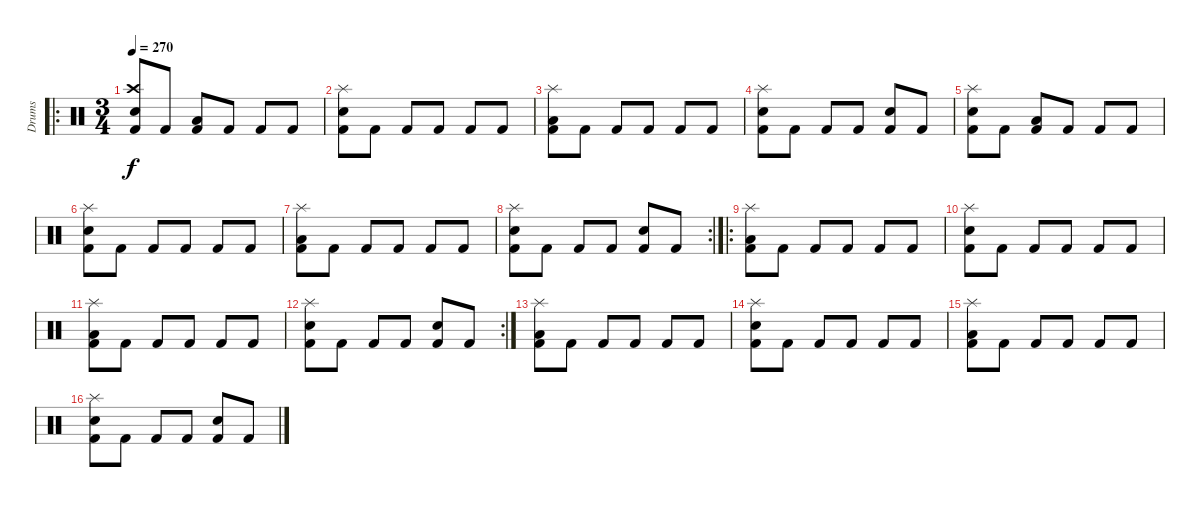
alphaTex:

\track ("Drums" "Drums") {instrument percussion}
\staff {score}
\articulation defaults
\ro
\ts (3 4)
\tempo 265
\tempo 270
\clef neutral
\ks c
("Electric Snare (hit)" "Crash high (hit)" "Kick (hit) 2").8{dy f} "Kick (hit) 2".8 ("Low Tom (hit)" "Kick (hit) 2").8 "Kick (hit) 2".8 "Kick (hit) 2".8 "Kick (hit) 2".8 |
("Splash (hit)" "Electric Snare (hit)" "Kick (hit) 2").8 "Kick (hit) 2".8 "Kick (hit) 2".8 "Kick (hit) 2".8 "Kick (hit) 2".8 "Kick (hit) 2".8 |
("Splash (hit)" "Low Tom (hit)" "Kick (hit) 2").8 "Kick (hit) 2".8 "Kick (hit) 2".8 "Kick (hit) 2".8 "Kick (hit) 2".8 "Kick (hit) 2".8 |
("Splash (hit)" "Electric Snare (hit)" "Kick (hit) 2").8 "Kick (hit) 2".8 "Kick (hit) 2".8 "Kick (hit) 2".8 ("Electric Snare (hit)" "Kick (hit) 2").8 "Kick (hit) 2".8 |
("Splash (hit)" "Electric Snare (hit)" "Kick (hit) 2").8 "Kick (hit) 2".8 ("Low Tom (hit)" "Kick (hit) 2").8 "Kick (hit) 2".8 "Kick (hit) 2".8 "Kick (hit) 2".8 |
("Splash (hit)" "Electric Snare (hit)" "Kick (hit) 2").8 "Kick (hit) 2".8 "Kick (hit) 2".8 "Kick (hit) 2".8 "Kick (hit) 2".8 "Kick (hit) 2".8 |
("Splash (hit)" "Low Tom (hit)" "Kick (hit) 2").8 "Kick (hit) 2".8 "Kick (hit) 2".8 "Kick (hit) 2".8 "Kick (hit) 2".8 "Kick (hit) 2".8 |
\rc 2
("Splash (hit)" "Electric Snare (hit)" "Kick (hit) 2").8 "Kick (hit) 2".8 "Kick (hit) 2".8 "Kick (hit) 2".8 ("Electric Snare (hit)" "Kick (hit) 2").8 "Kick (hit) 2".8 |
\ro
("Splash (hit)" "Low Tom (hit)" "Kick (hit) 2").8 "Kick (hit) 2".8 "Kick (hit) 2".8 "Kick (hit) 2".8 "Kick (hit) 2".8 "Kick (hit) 2".8 |
("Splash (hit)" "Electric Snare (hit)" "Kick (hit) 2").8 "Kick (hit) 2".8 "Kick (hit) 2".8 "Kick (hit) 2".8 "Kick (hit) 2".8 "Kick (hit) 2".8 |
("Splash (hit)" "Low Tom (hit)" "Kick (hit) 2").8 "Kick (hit) 2".8 "Kick (hit) 2".8 "Kick (hit) 2".8 "Kick (hit) 2".8 "Kick (hit) 2".8 |
\rc 2
("Splash (hit)" "Electric Snare (hit)" "Kick (hit) 2").8 "Kick (hit) 2".8 "Kick (hit) 2".8 "Kick (hit) 2".8 ("Electric Snare (hit)" "Kick (hit) 2").8 "Kick (hit) 2".8 |
("Splash (hit)" "Low Tom (hit)" "Kick (hit) 2").8 "Kick (hit) 2".8 "Kick (hit) 2".8 "Kick (hit) 2".8 "Kick (hit) 2".8 "Kick (hit) 2".8 |
("Splash (hit)" "Electric Snare (hit)" "Kick (hit) 2").8 "Kick (hit) 2".8 "Kick (hit) 2".8 "Kick (hit) 2".8 "Kick (hit) 2".8 "Kick (hit) 2".8 |
("Splash (hit)" "Low Tom (hit)" "Kick (hit) 2").8 "Kick (hit) 2".8 "Kick (hit) 2".8 "Kick (hit) 2".8 "Kick (hit) 2".8 "Kick (hit) 2".8 |
("Splash (hit)" "Electric Snare (hit)" "Kick (hit) 2").8 "Kick (hit) 2".8 "Kick (hit) 2".8 "Kick (hit) 2".8 ("Electric Snare (hit)" "Kick (hit) 2").8 "Kick (hit) 2".8
